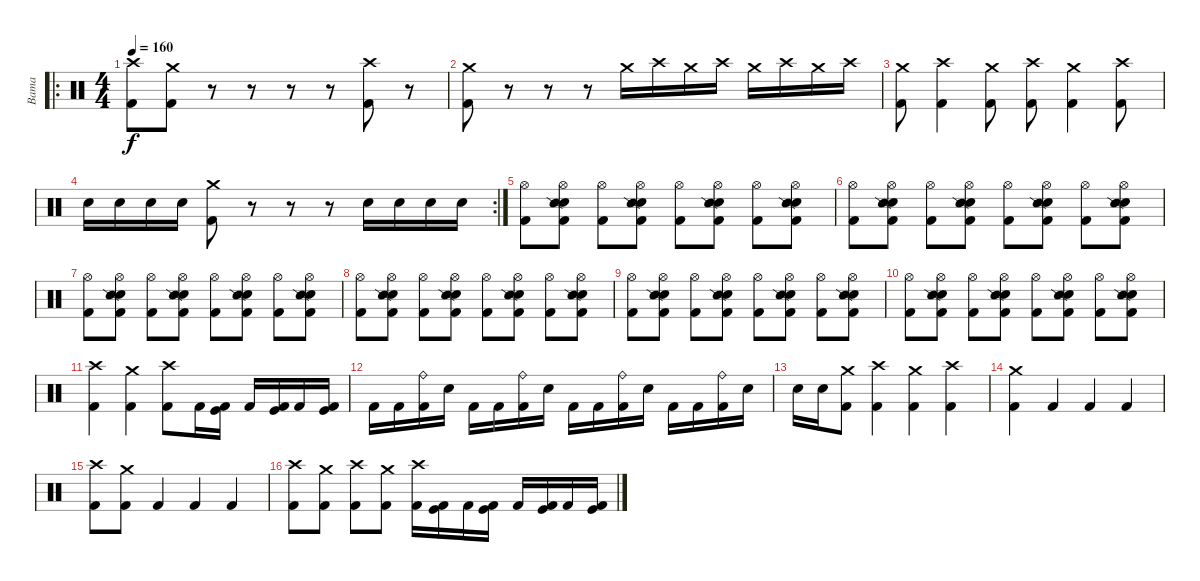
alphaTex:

\track ("Bama" "Bama") {instrument percussion}
\staff {score}
\articulation defaults
\ro
\ts (4 4)
\tempo 160
\clef neutral
\ks c
("Crash high (hit)" "Kick (hit) 2").8{dy f balance 16} ("Crash medium (hit)" "Kick (hit) 2").8 r.8 r.8 r.8 r.8 ("Crash high (hit)" "Kick (hit) 2").8 r.8 |
("Crash medium (hit)" "Kick (hit) 2").8 r.8 r.8 r.8 "Crash medium (hit)".16 "Crash high (hit)".16 "Crash medium (hit)".16 "Crash high (hit)".16 "Crash medium (hit)".16 "Crash high (hit)".16 "Crash medium (hit)".16 "Crash high (hit)".16 |
("Crash medium (hit)" "Kick (hit) 2").8{balance 8} ("Crash high (hit)" "Kick (hit) 2").4 ("Crash medium (hit)" "Kick (hit) 2").8 ("Crash high (hit)" "Kick (hit) 2").8 ("Crash medium (hit)" "Kick (hit) 2").4 ("Crash high (hit)" "Kick (hit) 2").8 |
\rc 2 "Electric Snare (hit)".16 "Electric Snare (hit)".16 "Electric Snare (hit)".16 "Electric Snare (hit)".16
("Crash medium (hit)" "Kick (hit) 2").8 r.8 r.8 r.8 "Electric Snare (hit)".16 "Electric Snare (hit)".16 "Electric Snare (hit)".16 "Electric Snare (hit)".16 |
("Hi-Hat (open)" "Kick (hit) 2").8 ("Hi-Hat (open)" "Electric Snare (hit)" "Snare (side stick) 2" "Kick (hit) 2").8 ("Hi-Hat (open)" "Kick (hit) 2").8 ("Hi-Hat (open)" "Electric Snare (hit)" "Snare (side stick) 2" "Kick (hit) 2").8 ("Hi-Hat (open)" "Kick (hit) 2").8 ("Hi-Hat (open)" "Electric Snare (hit)" "Snare (side stick) 2" "Kick (hit) 2").8 ("Hi-Hat (open)" "Kick (hit) 2").8 ("Hi-Hat (open)" "Electric Snare (hit)" "Snare (side stick) 2" "Kick (hit) 2").8 |
("Hi-Hat (open)" "Kick (hit) 2").8 ("Hi-Hat (open)" "Electric Snare (hit)" "Snare (side stick) 2" "Kick (hit) 2").8 ("Hi-Hat (open)" "Kick (hit) 2").8 ("Hi-Hat (open)" "Electric Snare (hit)" "Snare (side stick) 2" "Kick (hit) 2").8 ("Hi-Hat (open)" "Kick (hit) 2").8 ("Hi-Hat (open)" "Electric Snare (hit)" "Snare (side stick) 2" "Kick (hit) 2").8 ("Hi-Hat (open)" "Kick (hit) 2").8 ("Hi-Hat (open)" "Electric Snare (hit)" "Snare (side stick) 2" "Kick (hit) 2").8 |
("Hi-Hat (open)" "Kick (hit) 2").8 ("Hi-Hat (open)" "Electric Snare (hit)" "Snare (side stick) 2" "Kick (hit) 2").8 ("Hi-Hat (open)" "Kick (hit) 2").8 ("Hi-Hat (open)" "Electric Snare (hit)" "Snare (side stick) 2" "Kick (hit) 2").8 ("Hi-Hat (open)" "Kick (hit) 2").8 ("Hi-Hat (open)" "Electric Snare (hit)" "Snare (side stick) 2" "Kick (hit) 2").8 ("Hi-Hat (open)" "Kick (hit) 2").8 ("Hi-Hat (open)" "Electric Snare (hit)" "Snare (side stick) 2" "Kick (hit) 2").8 |
("Hi-Hat (open)" "Kick (hit) 2").8 ("Hi-Hat (open)" "Electric Snare (hit)" "Snare (side stick) 2" "Kick (hit) 2").8 ("Hi-Hat (open)" "Kick (hit) 2").8 ("Hi-Hat (open)" "Electric Snare (hit)" "Snare (side stick) 2" "Kick (hit) 2").8 ("Hi-Hat (open)" "Kick (hit) 2").8 ("Hi-Hat (open)" "Electric Snare (hit)" "Snare (side stick) 2" "Kick (hit) 2").8 ("Hi-Hat (open)" "Kick (hit) 2").8 ("Hi-Hat (open)" "Electric Snare (hit)" "Snare (side stick) 2" "Kick (hit) 2").8 |
("Hi-Hat (open)" "Kick (hit) 2").8 ("Hi-Hat (open)" "Electric Snare (hit)" "Snare (side stick) 2" "Kick (hit) 2").8 ("Hi-Hat (open)" "Kick (hit) 2").8 ("Hi-Hat (open)" "Electric Snare (hit)" "Snare (side stick) 2" "Kick (hit) 2").8 ("Hi-Hat (open)" "Kick (hit) 2").8 ("Hi-Hat (open)" "Electric Snare (hit)" "Snare (side stick) 2" "Kick (hit) 2").8 ("Hi-Hat (open)" "Kick (hit) 2").8 ("Hi-Hat (open)" "Electric Snare (hit)" "Snare (side stick) 2" "Kick (hit) 2").8 |
("Hi-Hat (open)" "Kick (hit) 2").8 ("Hi-Hat (open)" "Electric Snare (hit)" "Snare (side stick) 2" "Kick (hit) 2").8 ("Hi-Hat (open)" "Kick (hit) 2").8 ("Hi-Hat (open)" "Electric Snare (hit)" "Snare (side stick) 2" "Kick (hit) 2").8 ("Hi-Hat (open)" "Kick (hit) 2").8 ("Hi-Hat (open)" "Electric Snare (hit)" "Snare (side stick) 2" "Kick (hit) 2").8 ("Hi-Hat (open)" "Kick (hit) 2").8 ("Hi-Hat (open)" "Electric Snare (hit)" "Snare (side stick) 2" "Kick (hit) 2").8 |
("Crash high (hit)" "Kick (hit) 2").4 ("Crash medium (hit)" "Kick (hit) 2").4 ("Crash high (hit)" "Kick (hit) 2").8 "Kick (hit) 2".16 ("Kick (hit)" "Kick (hit) 2").16 "Kick (hit) 2".16 ("Kick (hit)" "Kick (hit) 2").16 "Kick (hit) 2".16 ("Kick (hit)" "Kick (hit) 2").16 |
"Kick (hit) 2".16 "Kick (hit) 2".16 ("Ride (bell)" "Kick (hit) 2").16 "Electric Snare (hit)".16 "Kick (hit) 2".16 "Kick (hit) 2".16 ("Ride (bell)" "Kick (hit) 2").16 "Electric Snare (hit)".16 "Kick (hit) 2".16 "Kick (hit) 2".16 ("Ride (bell)" "Kick (hit) 2").16 "Electric Snare (hit)".16 "Kick (hit) 2".16 "Kick (hit) 2".16 ("Ride (bell)" "Kick (hit) 2").16 "Electric Snare (hit)".16 |
"Electric Snare (hit)".16 "Electric Snare (hit)".16 ("Crash medium (hit)" "Kick (hit) 2").8 ("Crash high (hit)" "Kick (hit) 2").4 ("Crash medium (hit)" "Kick (hit) 2").4 ("Crash high (hit)" "Kick (hit) 2").4 |
("Crash medium (hit)" "Kick (hit) 2").4 "Kick (hit) 2".4 "Kick (hit) 2".4 "Kick (hit) 2".4 |
("Crash high (hit)" "Kick (hit) 2").8 ("Crash medium (hit)" "Kick (hit) 2").8 "Kick (hit) 2".4 "Kick (hit) 2".4 "Kick (hit) 2".4 |
("Crash high (hit)" "Kick (hit) 2").8 ("Crash medium (hit)" "Kick (hit) 2").8 ("Crash high (hit)" "Kick (hit) 2").8 ("Crash medium (hit)" "Kick (hit) 2").8 ("Crash high (hit)" "Kick (hit) 2").16 ("Kick (hit)" "Kick (hit) 2").16 "Kick (hit) 2".16 ("Kick (hit)" "Kick (hit) 2").16 "Kick (hit) 2".16 ("Kick (hit)" "Kick (hit) 2").16 "Kick (hit) 2".16 ("Kick (hit)" "Kick (hit) 2").16
